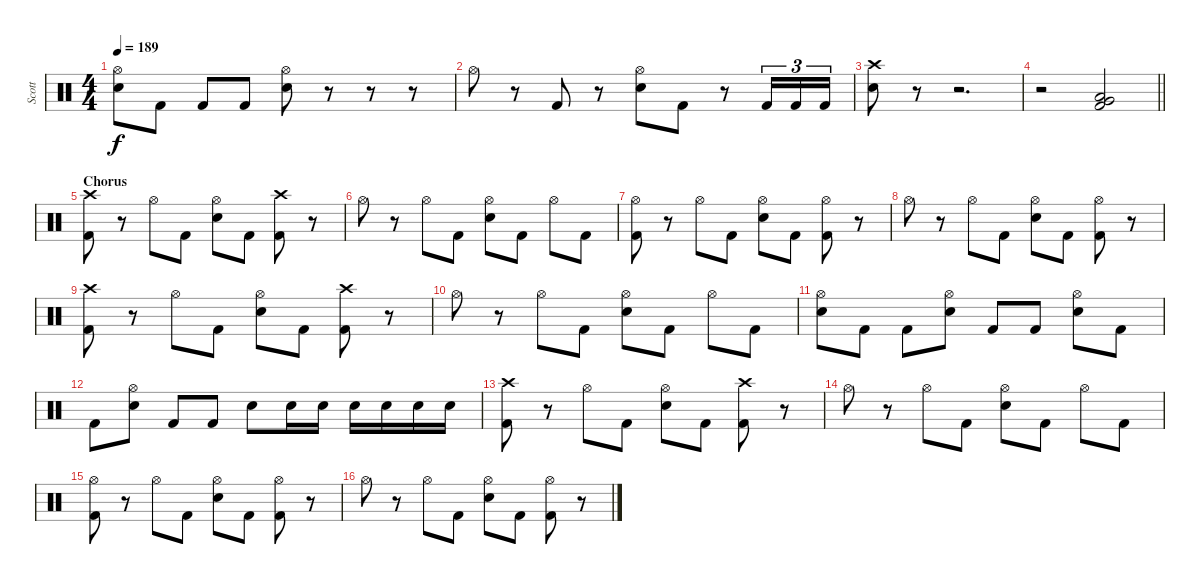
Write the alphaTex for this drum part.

\track ("Scott" "Scott") {instrument percussion}
\staff {score}
\articulation defaults
\ts (4 4)
\tempo 189
\clef neutral
\ks c
("Hi-Hat (open)" "Electric Snare (hit)").8{dy f} "Kick (hit) 2".8 "Kick (hit) 2".8 "Kick (hit) 2".8 ("Hi-Hat (open)" "Electric Snare (hit)").8 r.8 r.8 r.8 |
"Hi-Hat (open)".8 r.8 "Kick (hit) 2".8 r.8 ("Hi-Hat (open)" "Electric Snare (hit)").8 "Kick (hit) 2".8 r.8 "Kick (hit) 2".16{tu (3 2)} "Kick (hit) 2".16{tu (3 2)} "Kick (hit) 2".16{tu (3 2)} |
("Crash high (hit)" "Electric Snare (hit)").8 r.8 r.2{d} |
\barLineRight lightlight
r.2 ("Low Floor Tom (hit)" "Very Low Tom (hit)" "Kick (hit) 2").2 |
\section ("" "Chorus")
("Crash high (hit)" "Kick (hit) 2").8 r.8 "Hi-Hat (open)".8 "Kick (hit) 2".8 ("Hi-Hat (open)" "Electric Snare (hit)").8 "Kick (hit) 2".8 ("Crash high (hit)" "Kick (hit) 2").8 r.8 |
"Hi-Hat (open)".8 r.8 "Hi-Hat (open)".8 "Kick (hit) 2".8 ("Hi-Hat (open)" "Electric Snare (hit)").8 "Kick (hit) 2".8 "Hi-Hat (open)".8 "Kick (hit) 2".8 |
("Hi-Hat (open)" "Kick (hit) 2").8 r.8 "Hi-Hat (open)".8 "Kick (hit) 2".8 ("Hi-Hat (open)" "Electric Snare (hit)").8 "Kick (hit) 2".8 ("Hi-Hat (open)" "Kick (hit) 2").8 r.8 |
"Hi-Hat (open)".8 r.8 "Hi-Hat (open)".8 "Kick (hit) 2".8 ("Hi-Hat (open)" "Electric Snare (hit)").8 "Kick (hit) 2".8 ("Hi-Hat (open)" "Kick (hit) 2").8 r.8 |
("Crash high (hit)" "Kick (hit) 2").8 r.8 "Hi-Hat (open)".8 "Kick (hit) 2".8 ("Hi-Hat (open)" "Electric Snare (hit)").8 "Kick (hit) 2".8 ("Crash high (hit)" "Kick (hit) 2").8 r.8 |
"Hi-Hat (open)".8 r.8 "Hi-Hat (open)".8 "Kick (hit) 2".8 ("Hi-Hat (open)" "Electric Snare (hit)").8 "Kick (hit) 2".8 "Hi-Hat (open)".8 "Kick (hit) 2".8 |
("Hi-Hat (open)" "Electric Snare (hit)").8 "Kick (hit) 2".8 "Kick (hit) 2".8 ("Hi-Hat (open)" "Electric Snare (hit)").8 "Kick (hit) 2".8 "Kick (hit) 2".8 ("Hi-Hat (open)" "Electric Snare (hit)").8 "Kick (hit) 2".8 |
"Kick (hit) 2".8 ("Hi-Hat (open)" "Electric Snare (hit)").8 "Kick (hit) 2".8 "Kick (hit) 2".8 "Electric Snare (hit)".8 "Electric Snare (hit)".16 "Electric Snare (hit)".16 "Electric Snare (hit)".16 "Electric Snare (hit)".16 "Electric Snare (hit)".16 "Electric Snare (hit)".16 |
("Crash high (hit)" "Kick (hit) 2").8 r.8 "Hi-Hat (open)".8 "Kick (hit) 2".8 ("Hi-Hat (open)" "Electric Snare (hit)").8 "Kick (hit) 2".8 ("Crash high (hit)" "Kick (hit) 2").8 r.8 |
"Hi-Hat (open)".8 r.8 "Hi-Hat (open)".8 "Kick (hit) 2".8 ("Hi-Hat (open)" "Electric Snare (hit)").8 "Kick (hit) 2".8 "Hi-Hat (open)".8 "Kick (hit) 2".8 |
("Hi-Hat (open)" "Kick (hit) 2").8 r.8 "Hi-Hat (open)".8 "Kick (hit) 2".8 ("Hi-Hat (open)" "Electric Snare (hit)").8 "Kick (hit) 2".8 ("Hi-Hat (open)" "Kick (hit) 2").8 r.8 |
"Hi-Hat (open)".8 r.8 "Hi-Hat (open)".8 "Kick (hit) 2".8 ("Hi-Hat (open)" "Electric Snare (hit)").8 "Kick (hit) 2".8 ("Hi-Hat (open)" "Kick (hit) 2").8 r.8
